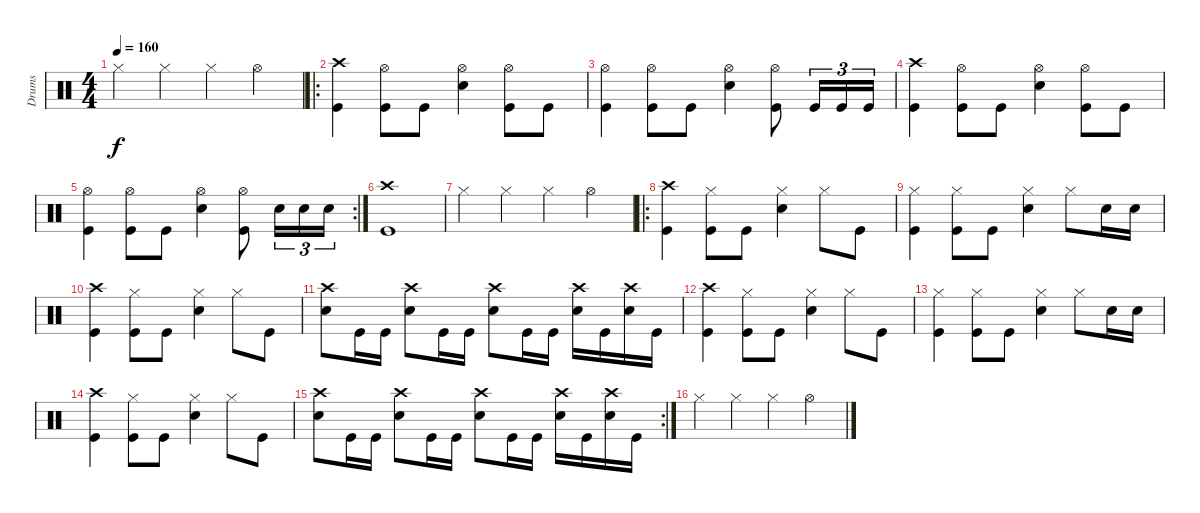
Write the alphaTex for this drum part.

\track ("Drums" "Drums") {instrument percussion}
\staff {score}
\articulation defaults
\ts (4 4)
\tempo 160
\clef neutral
\ks c "Hi-Hat (closed)".4{dy f} "Hi-Hat (closed)".4 "Hi-Hat (closed)".4 "Hi-Hat (open)".4
|
\ro
("Crash high (hit)" "Kick (hit)").4 ("Hi-Hat (open)" "Kick (hit)").8 "Kick (hit)".8 ("Hi-Hat (open)" "Snare (hit) 2").4 ("Hi-Hat (open)" "Kick (hit)").8 "Kick (hit)".8 |
("Hi-Hat (open)" "Kick (hit)").4 ("Hi-Hat (open)" "Kick (hit)").8 "Kick (hit)".8 ("Hi-Hat (open)" "Snare (hit) 2").4 ("Hi-Hat (open)" "Kick (hit)").8 "Kick (hit)".16{tu (3 2)} "Kick (hit)".16{tu (3 2)} "Kick (hit)".16{tu (3 2)} |
("Crash high (hit)" "Kick (hit)").4 ("Hi-Hat (open)" "Kick (hit)").8 "Kick (hit)".8 ("Hi-Hat (open)" "Snare (hit) 2").4 ("Hi-Hat (open)" "Kick (hit)").8 "Kick (hit)".8 |
\rc 2
("Hi-Hat (open)" "Kick (hit)").4 ("Hi-Hat (open)" "Kick (hit)").8 "Kick (hit)".8 ("Hi-Hat (open)" "Snare (hit) 2").4 ("Hi-Hat (open)" "Kick (hit)").8 "Snare (hit) 2".16{tu (3 2)} "Snare (hit) 2".16{tu (3 2)} "Snare (hit) 2".16{tu (3 2)} |
("Crash high (hit)" "Kick (hit)").1 |
"Hi-Hat (closed)".4 "Hi-Hat (closed)".4 "Hi-Hat (closed)".4 "Hi-Hat (open)".4 |
\ro
("Crash high (hit)" "Kick (hit)").4 ("Hi-Hat (closed)" "Kick (hit)").8 "Kick (hit)".8 ("Hi-Hat (closed)" "Snare (hit) 2").4 "Hi-Hat (closed)".8 "Kick (hit)".8 |
("Hi-Hat (closed)" "Kick (hit)").4 ("Hi-Hat (closed)" "Kick (hit)").8 "Kick (hit)".8 ("Hi-Hat (closed)" "Snare (hit) 2").4 "Hi-Hat (closed)".8 "Snare (hit) 2".16 "Snare (hit) 2".16 |
("Crash high (hit)" "Kick (hit)").4 ("Hi-Hat (closed)" "Kick (hit)").8 "Kick (hit)".8 ("Hi-Hat (closed)" "Snare (hit) 2").4 "Hi-Hat (closed)".8 "Kick (hit)".8 |
("Crash high (hit)" "Snare (hit) 2").8 "Kick (hit)".16 "Kick (hit)".16 ("Crash high (hit)" "Snare (hit) 2").8 "Kick (hit)".16 "Kick (hit)".16 ("Crash high (hit)" "Snare (hit) 2").8 "Kick (hit)".16 "Kick (hit)".16 ("Crash high (hit)" "Snare (hit) 2").16 "Kick (hit)".16 ("Crash high (hit)" "Snare (hit) 2").16 "Kick (hit)".16 |
("Crash high (hit)" "Kick (hit)").4 ("Hi-Hat (closed)" "Kick (hit)").8 "Kick (hit)".8 ("Hi-Hat (closed)" "Snare (hit) 2").4 "Hi-Hat (closed)".8 "Kick (hit)".8 |
("Hi-Hat (closed)" "Kick (hit)").4 ("Hi-Hat (closed)" "Kick (hit)").8 "Kick (hit)".8 ("Hi-Hat (closed)" "Snare (hit) 2").4 "Hi-Hat (closed)".8 "Snare (hit) 2".16 "Snare (hit) 2".16 |
("Crash high (hit)" "Kick (hit)").4 ("Hi-Hat (closed)" "Kick (hit)").8 "Kick (hit)".8 ("Hi-Hat (closed)" "Snare (hit) 2").4 "Hi-Hat (closed)".8 "Kick (hit)".8 |
\rc 2
("Crash high (hit)" "Snare (hit) 2").8 "Kick (hit)".16 "Kick (hit)".16 ("Crash high (hit)" "Snare (hit) 2").8 "Kick (hit)".16 "Kick (hit)".16 ("Crash high (hit)" "Snare (hit) 2").8 "Kick (hit)".16 "Kick (hit)".16 ("Crash high (hit)" "Snare (hit) 2").16 "Kick (hit)".16 ("Crash high (hit)" "Snare (hit) 2").16 "Kick (hit)".16 |
"Hi-Hat (closed)".4 "Hi-Hat (closed)".4 "Hi-Hat (closed)".4 "Hi-Hat (open)".4
